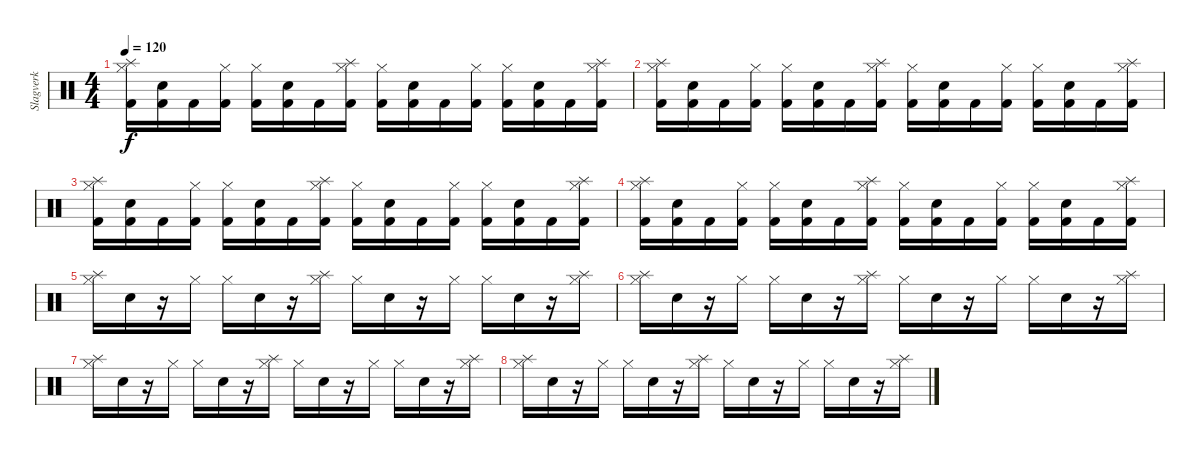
\track ("Slagverk" "Slagverk") {instrument percussion}
\staff {score}
\articulation defaults
\ts (4 4)
\tempo 120
\clef neutral
\ks c
("Kick (hit) 2" "Hi-Hat (closed)" "Splash (hit)").16{dy f} ("Kick (hit) 2" "Electric Snare (hit)").16 "Kick (hit) 2".16 ("Kick (hit) 2" "Hi-Hat (closed)").16 ("Kick (hit) 2" "Hi-Hat (closed)").16 ("Kick (hit) 2" "Electric Snare (hit)").16 "Kick (hit) 2".16 ("Kick (hit) 2" "Hi-Hat (closed)" "Splash (hit)").16 ("Kick (hit) 2" "Hi-Hat (closed)").16 ("Kick (hit) 2" "Electric Snare (hit)").16 "Kick (hit) 2".16 ("Kick (hit) 2" "Hi-Hat (closed)").16 ("Kick (hit) 2" "Hi-Hat (closed)").16 ("Kick (hit) 2" "Electric Snare (hit)").16 "Kick (hit) 2".16 ("Kick (hit) 2" "Hi-Hat (closed)" "Splash (hit)").16 |
("Kick (hit) 2" "Hi-Hat (closed)" "Splash (hit)").16 ("Kick (hit) 2" "Electric Snare (hit)").16 "Kick (hit) 2".16 ("Kick (hit) 2" "Hi-Hat (closed)").16 ("Kick (hit) 2" "Hi-Hat (closed)").16 ("Kick (hit) 2" "Electric Snare (hit)").16 "Kick (hit) 2".16 ("Kick (hit) 2" "Hi-Hat (closed)" "Splash (hit)").16 ("Kick (hit) 2" "Hi-Hat (closed)").16 ("Kick (hit) 2" "Electric Snare (hit)").16 "Kick (hit) 2".16 ("Kick (hit) 2" "Hi-Hat (closed)").16 ("Kick (hit) 2" "Hi-Hat (closed)").16 ("Kick (hit) 2" "Electric Snare (hit)").16 "Kick (hit) 2".16 ("Kick (hit) 2" "Hi-Hat (closed)" "Splash (hit)").16 |
("Kick (hit) 2" "Hi-Hat (closed)" "Splash (hit)").16 ("Kick (hit) 2" "Electric Snare (hit)").16 "Kick (hit) 2".16 ("Kick (hit) 2" "Hi-Hat (closed)").16 ("Kick (hit) 2" "Hi-Hat (closed)").16 ("Kick (hit) 2" "Electric Snare (hit)").16 "Kick (hit) 2".16 ("Kick (hit) 2" "Hi-Hat (closed)" "Splash (hit)").16 ("Kick (hit) 2" "Hi-Hat (closed)").16 ("Kick (hit) 2" "Electric Snare (hit)").16 "Kick (hit) 2".16 ("Kick (hit) 2" "Hi-Hat (closed)").16 ("Kick (hit) 2" "Hi-Hat (closed)").16 ("Kick (hit) 2" "Electric Snare (hit)").16 "Kick (hit) 2".16 ("Kick (hit) 2" "Hi-Hat (closed)" "Splash (hit)").16 |
("Kick (hit) 2" "Hi-Hat (closed)" "Splash (hit)").16 ("Kick (hit) 2" "Electric Snare (hit)").16 "Kick (hit) 2".16 ("Kick (hit) 2" "Hi-Hat (closed)").16 ("Kick (hit) 2" "Hi-Hat (closed)").16 ("Kick (hit) 2" "Electric Snare (hit)").16 "Kick (hit) 2".16 ("Kick (hit) 2" "Hi-Hat (closed)" "Splash (hit)").16 ("Kick (hit) 2" "Hi-Hat (closed)").16 ("Kick (hit) 2" "Electric Snare (hit)").16 "Kick (hit) 2".16 ("Kick (hit) 2" "Hi-Hat (closed)").16 ("Kick (hit) 2" "Hi-Hat (closed)").16 ("Kick (hit) 2" "Electric Snare (hit)").16 "Kick (hit) 2".16 ("Kick (hit) 2" "Hi-Hat (closed)" "Splash (hit)").16 |
("Hi-Hat (closed)" "Splash (hit)").16 "Electric Snare (hit)".16 r.16 "Hi-Hat (closed)".16 "Hi-Hat (closed)".16 "Electric Snare (hit)".16 r.16 ("Hi-Hat (closed)" "Splash (hit)").16 "Hi-Hat (closed)".16 "Electric Snare (hit)".16 r.16 "Hi-Hat (closed)".16 "Hi-Hat (closed)".16 "Electric Snare (hit)".16 r.16 ("Hi-Hat (closed)" "Splash (hit)").16 |
("Hi-Hat (closed)" "Splash (hit)").16 "Electric Snare (hit)".16 r.16 "Hi-Hat (closed)".16 "Hi-Hat (closed)".16 "Electric Snare (hit)".16 r.16 ("Hi-Hat (closed)" "Splash (hit)").16 "Hi-Hat (closed)".16 "Electric Snare (hit)".16 r.16 "Hi-Hat (closed)".16 "Hi-Hat (closed)".16 "Electric Snare (hit)".16 r.16 ("Hi-Hat (closed)" "Splash (hit)").16 |
("Hi-Hat (closed)" "Splash (hit)").16 "Electric Snare (hit)".16 r.16 "Hi-Hat (closed)".16 "Hi-Hat (closed)".16 "Electric Snare (hit)".16 r.16 ("Hi-Hat (closed)" "Splash (hit)").16 "Hi-Hat (closed)".16 "Electric Snare (hit)".16 r.16 "Hi-Hat (closed)".16 "Hi-Hat (closed)".16 "Electric Snare (hit)".16 r.16 ("Hi-Hat (closed)" "Splash (hit)").16 |
("Hi-Hat (closed)" "Splash (hit)").16 "Electric Snare (hit)".16 r.16 "Hi-Hat (closed)".16 "Hi-Hat (closed)".16 "Electric Snare (hit)".16 r.16 ("Hi-Hat (closed)" "Splash (hit)").16 "Hi-Hat (closed)".16 "Electric Snare (hit)".16 r.16 "Hi-Hat (closed)".16 "Hi-Hat (closed)".16 "Electric Snare (hit)".16 r.16 ("Hi-Hat (closed)" "Splash (hit)").16
